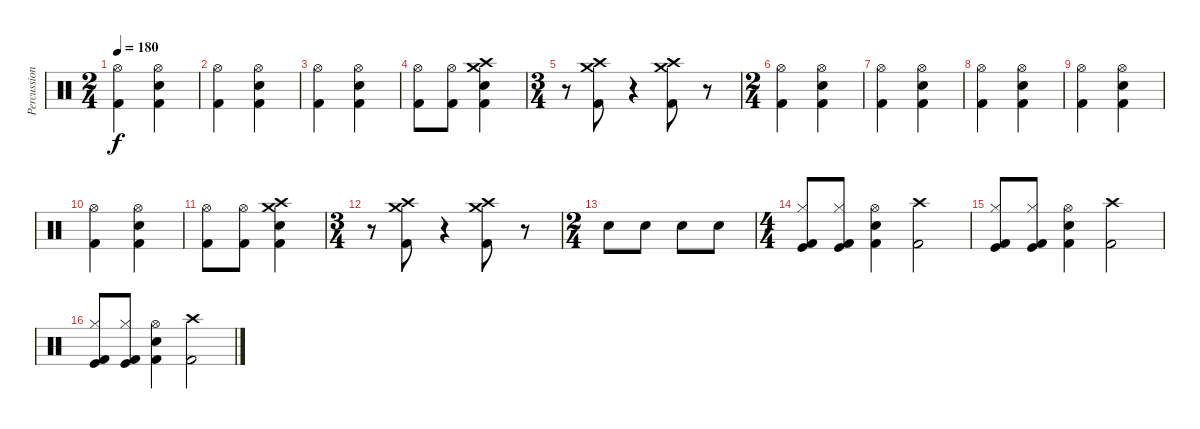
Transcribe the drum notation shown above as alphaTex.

\track ("Percussion" "Percussion") {instrument percussion}
\staff {score}
\articulation defaults
\ts (2 4)
\tempo 180
\clef neutral
\ks c
("Hi-Hat (open)" "Kick (hit) 2").4{dy f} ("Hi-Hat (open)" "Snare (hit) 2" "Kick (hit) 2").4 |
("Hi-Hat (open)" "Kick (hit) 2").4 ("Hi-Hat (open)" "Snare (hit) 2" "Kick (hit) 2").4 |
("Hi-Hat (open)" "Kick (hit) 2").4 ("Hi-Hat (open)" "Snare (hit) 2" "Kick (hit) 2").4 |
("Hi-Hat (open)" "Kick (hit) 2").8 ("Hi-Hat (open)" "Kick (hit) 2").8 ("Crash medium (hit)" "Crash high (hit)" "Snare (hit) 2" "Kick (hit) 2").4 |
\ts (3 4)
r.8 ("Crash medium (hit)" "Crash high (hit)" "Kick (hit) 2").8 r.4 ("Crash medium (hit)" "Crash high (hit)" "Kick (hit) 2").8 r.8 |
\ts (2 4)
("Hi-Hat (open)" "Kick (hit) 2").4 ("Hi-Hat (open)" "Snare (hit) 2" "Kick (hit) 2").4 |
("Hi-Hat (open)" "Kick (hit) 2").4 ("Hi-Hat (open)" "Snare (hit) 2" "Kick (hit) 2").4 |
("Hi-Hat (open)" "Kick (hit) 2").4 ("Hi-Hat (open)" "Snare (hit) 2" "Kick (hit) 2").4 |
("Hi-Hat (open)" "Kick (hit) 2").4 ("Hi-Hat (open)" "Snare (hit) 2" "Kick (hit) 2").4 |
("Hi-Hat (open)" "Kick (hit) 2").4 ("Hi-Hat (open)" "Snare (hit) 2" "Kick (hit) 2").4 |
("Hi-Hat (open)" "Kick (hit) 2").8 ("Hi-Hat (open)" "Kick (hit) 2").8 ("Crash medium (hit)" "Crash high (hit)" "Snare (hit) 2" "Kick (hit) 2").4 |
\ts (3 4)
r.8 ("Crash medium (hit)" "Crash high (hit)" "Kick (hit) 2").8 r.4 ("Crash medium (hit)" "Crash high (hit)" "Kick (hit) 2").8 r.8 |
\ts (2 4)
"Snare (hit) 2".8 "Snare (hit) 2".8 "Snare (hit) 2".8 "Snare (hit) 2".8 |
\ts (4 4)
("Hi-Hat (closed)" "Kick (hit)" "Kick (hit) 2").8 ("Hi-Hat (closed)" "Kick (hit)" "Kick (hit) 2").8 ("Hi-Hat (open)" "Snare (hit) 2" "Kick (hit) 2").4 ("Crash high (hit)" "Kick (hit) 2").2 |
("Hi-Hat (closed)" "Kick (hit)" "Kick (hit) 2").8 ("Hi-Hat (closed)" "Kick (hit)" "Kick (hit) 2").8 ("Hi-Hat (open)" "Snare (hit) 2" "Kick (hit) 2").4 ("Crash high (hit)" "Kick (hit) 2").2 |
("Hi-Hat (closed)" "Kick (hit)" "Kick (hit) 2").8 ("Hi-Hat (closed)" "Kick (hit)" "Kick (hit) 2").8 ("Hi-Hat (open)" "Snare (hit) 2" "Kick (hit) 2").4 ("Crash high (hit)" "Kick (hit) 2").2
